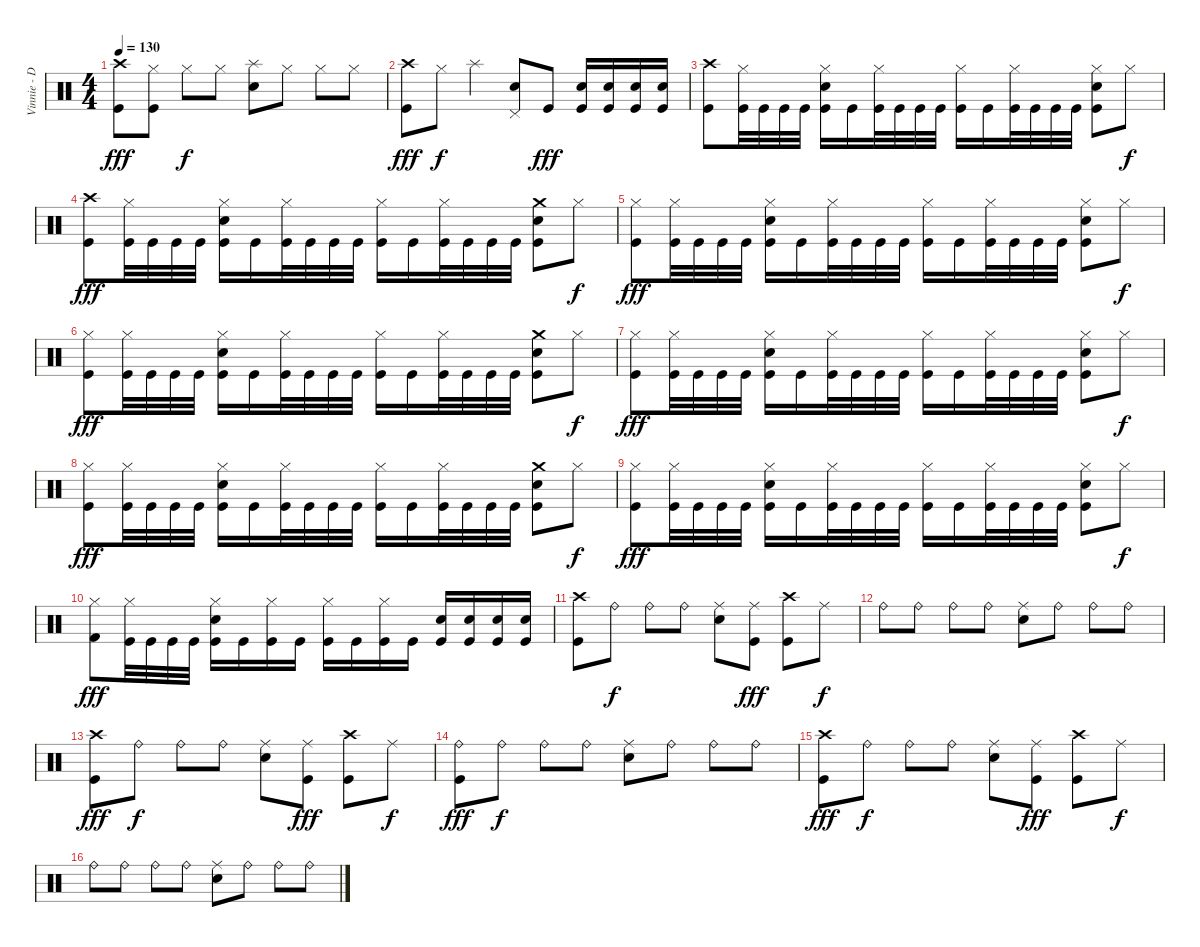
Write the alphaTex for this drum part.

\track ("Vinnie - Drums" "Vinnie - D") {instrument percussion}
\staff {score}
\articulation defaults
\ts (4 4)
\tempo 130
\clef neutral
\ks c
("Crash high (hit)" "Kick (hit)").8{dy fff} ("Hi-Hat (closed)" "Kick (hit)").8 "Hi-Hat (closed)".8{dy f} "Hi-Hat (closed)".8 ("Splash (hit)" "Electric Snare (hit)").8 "Hi-Hat (closed)".8 "Hi-Hat (closed)".8 "Hi-Hat (closed)".8 |
("Crash high (hit)" "Kick (hit)").8{dy fff} "Hi-Hat (closed)".8{dy f} "Splash (hit)".4 ("Pedal Hi-Hat (hit)" "Electric Snare (hit)").8 "Kick (hit)".8{dy fff} ("Electric Snare (hit)" "Kick (hit)").16 ("Electric Snare (hit)" "Kick (hit)").16 ("Electric Snare (hit)" "Kick (hit)").16 ("Electric Snare (hit)" "Kick (hit)").16 |
("Crash high (hit)" "Kick (hit)").8 ("Hi-Hat (closed)" "Kick (hit)").32 "Kick (hit)".32 "Kick (hit)".32 "Kick (hit)".32 ("Hi-Hat (closed)" "Electric Snare (hit)" "Kick (hit)").16 "Kick (hit)".16 ("Hi-Hat (closed)" "Kick (hit)").32 "Kick (hit)".32 "Kick (hit)".32 "Kick (hit)".32 ("Hi-Hat (closed)" "Kick (hit)").16 "Kick (hit)".16 ("Hi-Hat (closed)" "Kick (hit)").32 "Kick (hit)".32 "Kick (hit)".32 "Kick (hit)".32 ("Hi-Hat (closed)" "Electric Snare (hit)" "Kick (hit)").8 "Hi-Hat (closed)".8{dy f} |
("Crash high (hit)" "Kick (hit)").8{dy fff} ("Hi-Hat (closed)" "Kick (hit)").32 "Kick (hit)".32 "Kick (hit)".32 "Kick (hit)".32 ("Hi-Hat (closed)" "Electric Snare (hit)" "Kick (hit)").16 "Kick (hit)".16 ("Hi-Hat (closed)" "Kick (hit)").32 "Kick (hit)".32 "Kick (hit)".32 "Kick (hit)".32 ("Hi-Hat (closed)" "Kick (hit)").16 "Kick (hit)".16 ("Hi-Hat (closed)" "Kick (hit)").32 "Kick (hit)".32 "Kick (hit)".32 "Kick (hit)".32 ("Crash medium (hit)" "Electric Snare (hit)" "Kick (hit)").8 "Hi-Hat (closed)".8{dy f} |
("Hi-Hat (closed)" "Kick (hit)").8{dy fff} ("Hi-Hat (closed)" "Kick (hit)").32 "Kick (hit)".32 "Kick (hit)".32 "Kick (hit)".32 ("Hi-Hat (closed)" "Electric Snare (hit)" "Kick (hit)").16 "Kick (hit)".16 ("Hi-Hat (closed)" "Kick (hit)").32 "Kick (hit)".32 "Kick (hit)".32 "Kick (hit)".32 ("Hi-Hat (closed)" "Kick (hit)").16 "Kick (hit)".16 ("Hi-Hat (closed)" "Kick (hit)").32 "Kick (hit)".32 "Kick (hit)".32 "Kick (hit)".32 ("Hi-Hat (closed)" "Electric Snare (hit)" "Kick (hit)").8 "Hi-Hat (closed)".8{dy f} |
("Hi-Hat (closed)" "Kick (hit)").8{dy fff} ("Hi-Hat (closed)" "Kick (hit)").32 "Kick (hit)".32 "Kick (hit)".32 "Kick (hit)".32 ("Hi-Hat (closed)" "Electric Snare (hit)" "Kick (hit)").16 "Kick (hit)".16 ("Hi-Hat (closed)" "Kick (hit)").32 "Kick (hit)".32 "Kick (hit)".32 "Kick (hit)".32 ("Hi-Hat (closed)" "Kick (hit)").16 "Kick (hit)".16 ("Hi-Hat (closed)" "Kick (hit)").32 "Kick (hit)".32 "Kick (hit)".32 "Kick (hit)".32 ("Crash medium (hit)" "Electric Snare (hit)" "Kick (hit)").8 "Hi-Hat (closed)".8{dy f} |
("Hi-Hat (closed)" "Kick (hit)").8{dy fff} ("Hi-Hat (closed)" "Kick (hit)").32 "Kick (hit)".32 "Kick (hit)".32 "Kick (hit)".32 ("Hi-Hat (closed)" "Electric Snare (hit)" "Kick (hit)").16 "Kick (hit)".16 ("Hi-Hat (closed)" "Kick (hit)").32 "Kick (hit)".32 "Kick (hit)".32 "Kick (hit)".32 ("Hi-Hat (closed)" "Kick (hit)").16 "Kick (hit)".16 ("Hi-Hat (closed)" "Kick (hit)").32 "Kick (hit)".32 "Kick (hit)".32 "Kick (hit)".32 ("Hi-Hat (closed)" "Electric Snare (hit)" "Kick (hit)").8 "Hi-Hat (closed)".8{dy f} |
("Hi-Hat (closed)" "Kick (hit)").8{dy fff} ("Hi-Hat (closed)" "Kick (hit)").32 "Kick (hit)".32 "Kick (hit)".32 "Kick (hit)".32 ("Hi-Hat (closed)" "Electric Snare (hit)" "Kick (hit)").16 "Kick (hit)".16 ("Hi-Hat (closed)" "Kick (hit)").32 "Kick (hit)".32 "Kick (hit)".32 "Kick (hit)".32 ("Hi-Hat (closed)" "Kick (hit)").16 "Kick (hit)".16 ("Hi-Hat (closed)" "Kick (hit)").32 "Kick (hit)".32 "Kick (hit)".32 "Kick (hit)".32 ("Crash medium (hit)" "Electric Snare (hit)" "Kick (hit)").8 "Hi-Hat (closed)".8{dy f} |
("Hi-Hat (closed)" "Kick (hit)").8{dy fff} ("Hi-Hat (closed)" "Kick (hit)").32 "Kick (hit)".32 "Kick (hit)".32 "Kick (hit)".32 ("Hi-Hat (closed)" "Electric Snare (hit)" "Kick (hit)").16 "Kick (hit)".16 ("Hi-Hat (closed)" "Kick (hit)").32 "Kick (hit)".32 "Kick (hit)".32 "Kick (hit)".32 ("Hi-Hat (closed)" "Kick (hit)").16 "Kick (hit)".16 ("Hi-Hat (closed)" "Kick (hit)").32 "Kick (hit)".32 "Kick (hit)".32 "Kick (hit)".32 ("Hi-Hat (closed)" "Electric Snare (hit)" "Kick (hit)").8 "Hi-Hat (closed)".8{dy f} |
("Hi-Hat (closed)" "Kick (hit) 2").8{dy fff} ("Hi-Hat (closed)" "Kick (hit)").32 "Kick (hit)".32 "Kick (hit)".32 "Kick (hit)".32 ("Hi-Hat (closed)" "Electric Snare (hit)" "Kick (hit)").16 "Kick (hit)".16 ("Hi-Hat (closed)" "Kick (hit)").16 "Kick (hit)".16 ("Hi-Hat (closed)" "Kick (hit)").16 "Kick (hit)".16 ("Hi-Hat (closed)" "Kick (hit)").16 "Kick (hit)".16 ("Electric Snare (hit)" "Kick (hit)").16 ("Electric Snare (hit)" "Kick (hit)").16 ("Electric Snare (hit)" "Kick (hit)").16 ("Electric Snare (hit)" "Kick (hit)").16 |
("Crash high (hit)" "Kick (hit)").8 "Ride (bell)".8{dy f} "Ride (bell)".8 "Ride (bell)".8 ("Ride (middle)" "Electric Snare (hit)").8 ("Ride (middle)" "Kick (hit)").8{dy fff} ("Crash high (hit)" "Kick (hit)").8 "Ride (middle)".8{dy f} |
"Ride (bell)".8 "Ride (bell)".8 "Ride (bell)".8 "Ride (bell)".8 ("Ride (middle)" "Electric Snare (hit)").8 "Ride (bell)".8 "Ride (bell)".8 "Ride (bell)".8 |
("Crash high (hit)" "Kick (hit)").8{dy fff} "Ride (bell)".8{dy f} "Ride (bell)".8 "Ride (bell)".8 ("Ride (middle)" "Electric Snare (hit)").8 ("Ride (middle)" "Kick (hit)").8{dy fff} ("Crash high (hit)" "Kick (hit)").8 "Ride (middle)".8{dy f} |
("Ride (bell)" "Kick (hit)").8{dy fff} "Ride (bell)".8{dy f} "Ride (bell)".8 "Ride (bell)".8 ("Ride (middle)" "Electric Snare (hit)").8 "Ride (bell)".8 "Ride (bell)".8 "Ride (bell)".8 |
("Crash high (hit)" "Kick (hit)").8{dy fff} "Ride (bell)".8{dy f} "Ride (bell)".8 "Ride (bell)".8 ("Ride (middle)" "Electric Snare (hit)").8 ("Ride (middle)" "Kick (hit)").8{dy fff} ("Crash high (hit)" "Kick (hit)").8 "Ride (middle)".8{dy f} |
"Ride (bell)".8 "Ride (bell)".8 "Ride (bell)".8 "Ride (bell)".8 ("Ride (middle)" "Electric Snare (hit)").8 "Ride (bell)".8 "Ride (bell)".8 "Ride (bell)".8
